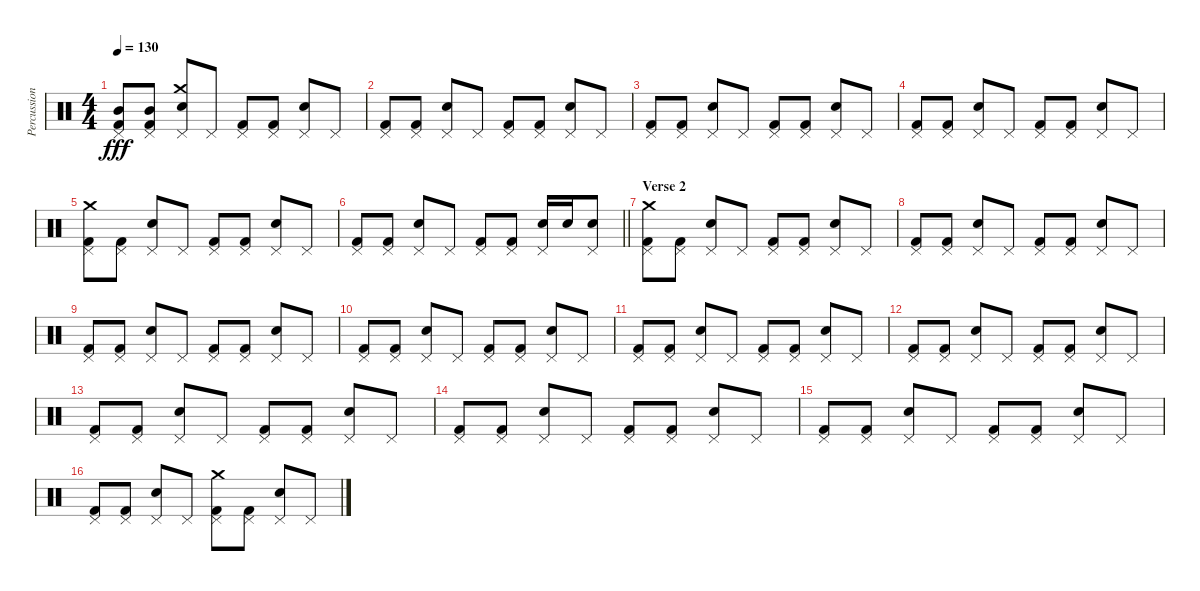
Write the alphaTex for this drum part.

\track ("Percussion" "Percussion") {instrument percussion}
\staff {score}
\articulation defaults
\ts (4 4)
\tempo 130
\clef neutral
\ks c
("Pedal Hi-Hat (hit)" "Mid Tom (hit)" "Kick (hit) 2").8{dy fff} ("Pedal Hi-Hat (hit)" "Mid Tom (hit)" "Kick (hit) 2").8 ("Pedal Hi-Hat (hit)" "Crash medium (hit)" "Electric Snare (hit)").8 "Pedal Hi-Hat (hit)".8 ("Pedal Hi-Hat (hit)" "Kick (hit) 2").8 ("Pedal Hi-Hat (hit)" "Kick (hit) 2").8 ("Pedal Hi-Hat (hit)" "Electric Snare (hit)").8 "Pedal Hi-Hat (hit)".8 |
("Pedal Hi-Hat (hit)" "Kick (hit) 2").8 ("Pedal Hi-Hat (hit)" "Kick (hit) 2").8 ("Pedal Hi-Hat (hit)" "Electric Snare (hit)").8 "Pedal Hi-Hat (hit)".8 ("Pedal Hi-Hat (hit)" "Kick (hit) 2").8 ("Pedal Hi-Hat (hit)" "Kick (hit) 2").8 ("Pedal Hi-Hat (hit)" "Electric Snare (hit)").8 "Pedal Hi-Hat (hit)".8 |
("Pedal Hi-Hat (hit)" "Kick (hit) 2").8 ("Pedal Hi-Hat (hit)" "Kick (hit) 2").8 ("Pedal Hi-Hat (hit)" "Electric Snare (hit)").8 "Pedal Hi-Hat (hit)".8 ("Pedal Hi-Hat (hit)" "Kick (hit) 2").8 ("Pedal Hi-Hat (hit)" "Kick (hit) 2").8 ("Pedal Hi-Hat (hit)" "Electric Snare (hit)").8 "Pedal Hi-Hat (hit)".8 |
("Pedal Hi-Hat (hit)" "Kick (hit) 2").8 ("Pedal Hi-Hat (hit)" "Kick (hit) 2").8 ("Pedal Hi-Hat (hit)" "Electric Snare (hit)").8 "Pedal Hi-Hat (hit)".8 ("Pedal Hi-Hat (hit)" "Kick (hit) 2").8 ("Pedal Hi-Hat (hit)" "Kick (hit) 2").8 ("Pedal Hi-Hat (hit)" "Electric Snare (hit)").8 "Pedal Hi-Hat (hit)".8 |
("Pedal Hi-Hat (hit)" "Crash medium (hit)" "Kick (hit) 2").8 ("Pedal Hi-Hat (hit)" "Kick (hit) 2").8 ("Pedal Hi-Hat (hit)" "Electric Snare (hit)").8 "Pedal Hi-Hat (hit)".8 ("Pedal Hi-Hat (hit)" "Kick (hit) 2").8 ("Pedal Hi-Hat (hit)" "Kick (hit) 2").8 ("Pedal Hi-Hat (hit)" "Electric Snare (hit)").8 "Pedal Hi-Hat (hit)".8 |
\barLineRight lightlight
("Pedal Hi-Hat (hit)" "Kick (hit) 2").8 ("Pedal Hi-Hat (hit)" "Kick (hit) 2").8 ("Pedal Hi-Hat (hit)" "Electric Snare (hit)").8 "Pedal Hi-Hat (hit)".8 ("Pedal Hi-Hat (hit)" "Kick (hit) 2").8 ("Pedal Hi-Hat (hit)" "Kick (hit) 2").8 ("Pedal Hi-Hat (hit)" "Electric Snare (hit)").16 "Electric Snare (hit)".16 ("Pedal Hi-Hat (hit)" "Electric Snare (hit)").8 |
\section ("" "Verse 2")
("Pedal Hi-Hat (hit)" "Crash medium (hit)" "Kick (hit) 2").8 ("Pedal Hi-Hat (hit)" "Kick (hit) 2").8 ("Pedal Hi-Hat (hit)" "Electric Snare (hit)").8 "Pedal Hi-Hat (hit)".8 ("Pedal Hi-Hat (hit)" "Kick (hit) 2").8 ("Pedal Hi-Hat (hit)" "Kick (hit) 2").8 ("Pedal Hi-Hat (hit)" "Electric Snare (hit)").8 "Pedal Hi-Hat (hit)".8 |
("Pedal Hi-Hat (hit)" "Kick (hit) 2").8 ("Pedal Hi-Hat (hit)" "Kick (hit) 2").8 ("Pedal Hi-Hat (hit)" "Electric Snare (hit)").8 "Pedal Hi-Hat (hit)".8 ("Pedal Hi-Hat (hit)" "Kick (hit) 2").8 ("Pedal Hi-Hat (hit)" "Kick (hit) 2").8 ("Pedal Hi-Hat (hit)" "Electric Snare (hit)").8 "Pedal Hi-Hat (hit)".8 |
("Pedal Hi-Hat (hit)" "Kick (hit) 2").8 ("Pedal Hi-Hat (hit)" "Kick (hit) 2").8 ("Pedal Hi-Hat (hit)" "Electric Snare (hit)").8 "Pedal Hi-Hat (hit)".8 ("Pedal Hi-Hat (hit)" "Kick (hit) 2").8 ("Pedal Hi-Hat (hit)" "Kick (hit) 2").8 ("Pedal Hi-Hat (hit)" "Electric Snare (hit)").8 "Pedal Hi-Hat (hit)".8 |
("Pedal Hi-Hat (hit)" "Kick (hit) 2").8 ("Pedal Hi-Hat (hit)" "Kick (hit) 2").8 ("Pedal Hi-Hat (hit)" "Electric Snare (hit)").8 "Pedal Hi-Hat (hit)".8 ("Pedal Hi-Hat (hit)" "Kick (hit) 2").8 ("Pedal Hi-Hat (hit)" "Kick (hit) 2").8 ("Pedal Hi-Hat (hit)" "Electric Snare (hit)").8 "Pedal Hi-Hat (hit)".8 |
("Pedal Hi-Hat (hit)" "Kick (hit) 2").8 ("Pedal Hi-Hat (hit)" "Kick (hit) 2").8 ("Pedal Hi-Hat (hit)" "Electric Snare (hit)").8 "Pedal Hi-Hat (hit)".8 ("Pedal Hi-Hat (hit)" "Kick (hit) 2").8 ("Pedal Hi-Hat (hit)" "Kick (hit) 2").8 ("Pedal Hi-Hat (hit)" "Electric Snare (hit)").8 "Pedal Hi-Hat (hit)".8 |
("Pedal Hi-Hat (hit)" "Kick (hit) 2").8 ("Pedal Hi-Hat (hit)" "Kick (hit) 2").8 ("Pedal Hi-Hat (hit)" "Electric Snare (hit)").8 "Pedal Hi-Hat (hit)".8 ("Pedal Hi-Hat (hit)" "Kick (hit) 2").8 ("Pedal Hi-Hat (hit)" "Kick (hit) 2").8 ("Pedal Hi-Hat (hit)" "Electric Snare (hit)").8 "Pedal Hi-Hat (hit)".8 |
("Pedal Hi-Hat (hit)" "Kick (hit) 2").8 ("Pedal Hi-Hat (hit)" "Kick (hit) 2").8 ("Pedal Hi-Hat (hit)" "Electric Snare (hit)").8 "Pedal Hi-Hat (hit)".8 ("Pedal Hi-Hat (hit)" "Kick (hit) 2").8 ("Pedal Hi-Hat (hit)" "Kick (hit) 2").8 ("Pedal Hi-Hat (hit)" "Electric Snare (hit)").8 "Pedal Hi-Hat (hit)".8 |
("Pedal Hi-Hat (hit)" "Kick (hit) 2").8 ("Pedal Hi-Hat (hit)" "Kick (hit) 2").8 ("Pedal Hi-Hat (hit)" "Electric Snare (hit)").8 "Pedal Hi-Hat (hit)".8 ("Pedal Hi-Hat (hit)" "Kick (hit) 2").8 ("Pedal Hi-Hat (hit)" "Kick (hit) 2").8 ("Pedal Hi-Hat (hit)" "Electric Snare (hit)").8 "Pedal Hi-Hat (hit)".8 |
("Pedal Hi-Hat (hit)" "Kick (hit) 2").8 ("Pedal Hi-Hat (hit)" "Kick (hit) 2").8 ("Pedal Hi-Hat (hit)" "Electric Snare (hit)").8 "Pedal Hi-Hat (hit)".8 ("Pedal Hi-Hat (hit)" "Kick (hit) 2").8 ("Pedal Hi-Hat (hit)" "Kick (hit) 2").8 ("Pedal Hi-Hat (hit)" "Electric Snare (hit)").8 "Pedal Hi-Hat (hit)".8 |
("Pedal Hi-Hat (hit)" "Kick (hit) 2").8 ("Pedal Hi-Hat (hit)" "Kick (hit) 2").8 ("Pedal Hi-Hat (hit)" "Electric Snare (hit)").8 "Pedal Hi-Hat (hit)".8 ("Pedal Hi-Hat (hit)" "Crash medium (hit)" "Kick (hit) 2").8 ("Pedal Hi-Hat (hit)" "Kick (hit) 2").8 ("Pedal Hi-Hat (hit)" "Electric Snare (hit)").8 "Pedal Hi-Hat (hit)".8
